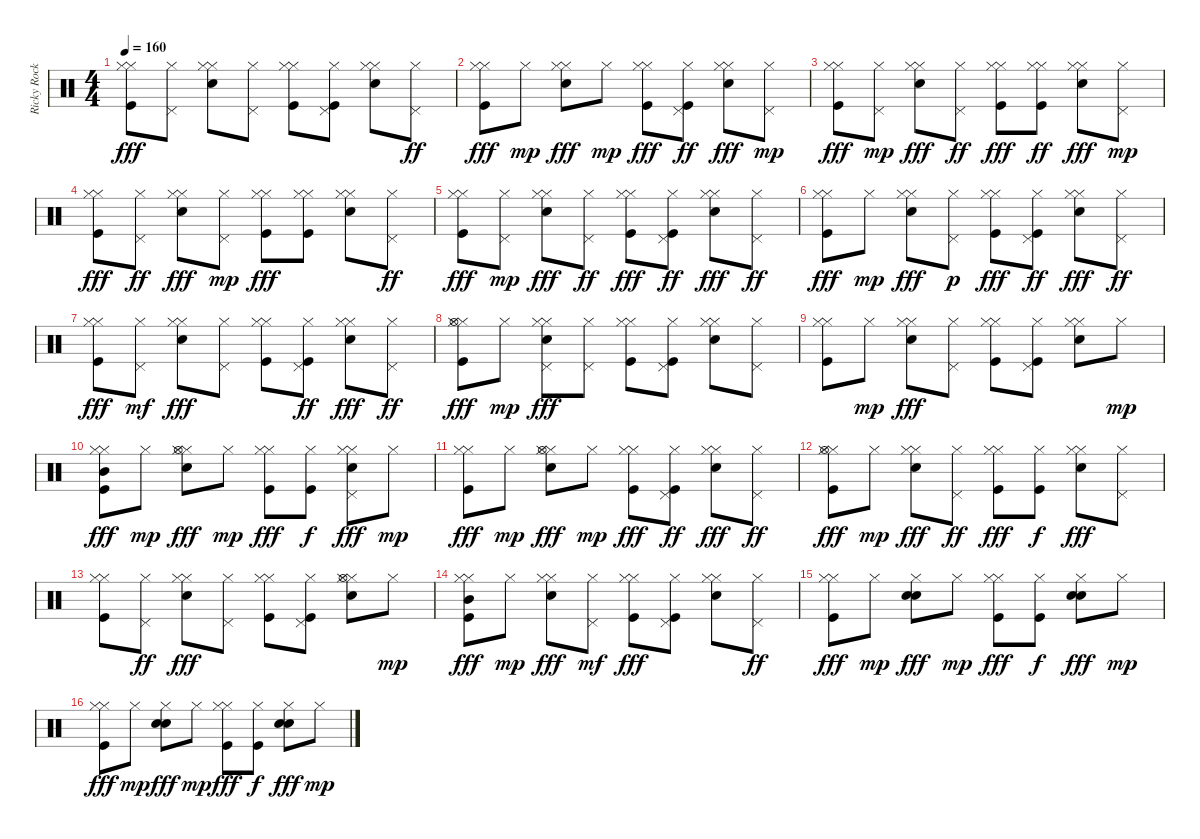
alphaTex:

\track ("Ricky Rockett" "Ricky Rock") {instrument percussion}
\staff {score}
\articulation defaults
\ts (4 4)
\tempo 160
\clef neutral
\ks c
("Hi-Hat (closed)" "Kick (hit)" "Hi-Hat (closed)").8{dy fff} ("Hi-Hat (closed)" "Pedal Hi-Hat (hit)").8 ("Snare (hit) 2" "Hi-Hat (closed)" "Hi-Hat (closed)").8 ("Hi-Hat (closed)" "Pedal Hi-Hat (hit)").8 ("Hi-Hat (closed)" "Kick (hit)" "Hi-Hat (closed)").8 ("Hi-Hat (closed)" "Kick (hit)" "Pedal Hi-Hat (hit)").8 ("Snare (hit) 2" "Hi-Hat (closed)" "Hi-Hat (closed)").8 ("Hi-Hat (closed)" "Pedal Hi-Hat (hit)").8{dy ff} |
("Hi-Hat (closed)" "Kick (hit)" "Hi-Hat (closed)").8{dy fff} "Hi-Hat (closed)".8{dy mp} ("Snare (hit) 2" "Hi-Hat (closed)" "Hi-Hat (closed)").8{dy fff} "Hi-Hat (closed)".8{dy mp} ("Hi-Hat (closed)" "Kick (hit)" "Hi-Hat (closed)").8{dy fff} ("Hi-Hat (closed)" "Kick (hit)" "Pedal Hi-Hat (hit)").8{dy ff} ("Snare (hit) 2" "Hi-Hat (closed)" "Hi-Hat (closed)").8{dy fff} ("Hi-Hat (closed)" "Pedal Hi-Hat (hit)").8{dy mp} |
("Hi-Hat (closed)" "Kick (hit)" "Hi-Hat (closed)").8{dy fff} ("Hi-Hat (closed)" "Pedal Hi-Hat (hit)").8{dy mp} ("Snare (hit) 2" "Hi-Hat (closed)" "Hi-Hat (closed)").8{dy fff} ("Hi-Hat (closed)" "Pedal Hi-Hat (hit)").8{dy ff} ("Hi-Hat (closed)" "Kick (hit)" "Hi-Hat (closed)").8{dy fff} ("Hi-Hat (closed)" "Kick (hit)" "Hi-Hat (closed)").8{dy ff} ("Snare (hit) 2" "Hi-Hat (closed)" "Hi-Hat (closed)").8{dy fff} ("Hi-Hat (closed)" "Pedal Hi-Hat (hit)").8{dy mp} |
("Hi-Hat (closed)" "Kick (hit)" "Hi-Hat (closed)").8{dy fff} ("Hi-Hat (closed)" "Pedal Hi-Hat (hit)").8{dy ff} ("Snare (hit) 2" "Hi-Hat (closed)" "Hi-Hat (closed)").8{dy fff} ("Hi-Hat (closed)" "Pedal Hi-Hat (hit)").8{dy mp} ("Hi-Hat (closed)" "Kick (hit)" "Hi-Hat (closed)").8{dy fff} ("Hi-Hat (closed)" "Kick (hit)" "Hi-Hat (closed)").8 ("Snare (hit) 2" "Hi-Hat (closed)" "Hi-Hat (closed)").8 ("Hi-Hat (closed)" "Pedal Hi-Hat (hit)").8{dy ff} |
("Hi-Hat (closed)" "Kick (hit)" "Hi-Hat (closed)").8{dy fff} ("Hi-Hat (closed)" "Pedal Hi-Hat (hit)").8{dy mp} ("Snare (hit) 2" "Hi-Hat (closed)" "Hi-Hat (closed)").8{dy fff} ("Hi-Hat (closed)" "Pedal Hi-Hat (hit)").8{dy ff} ("Hi-Hat (closed)" "Kick (hit)" "Hi-Hat (closed)").8{dy fff} ("Hi-Hat (closed)" "Kick (hit)" "Pedal Hi-Hat (hit)").8{dy ff} ("Snare (hit) 2" "Hi-Hat (closed)" "Hi-Hat (closed)").8{dy fff} ("Hi-Hat (closed)" "Pedal Hi-Hat (hit)").8{dy ff} |
("Hi-Hat (closed)" "Kick (hit)" "Hi-Hat (closed)").8{dy fff} "Hi-Hat (closed)".8{dy mp} ("Snare (hit) 2" "Hi-Hat (closed)" "Hi-Hat (closed)").8{dy fff} ("Hi-Hat (closed)" "Pedal Hi-Hat (hit)").8{dy p} ("Hi-Hat (closed)" "Kick (hit)" "Hi-Hat (closed)").8{dy fff} ("Hi-Hat (closed)" "Kick (hit)" "Pedal Hi-Hat (hit)").8{dy ff} ("Snare (hit) 2" "Hi-Hat (closed)" "Hi-Hat (closed)").8{dy fff} ("Hi-Hat (closed)" "Pedal Hi-Hat (hit)").8{dy ff} |
("Hi-Hat (closed)" "Kick (hit)" "Hi-Hat (closed)").8{dy fff} ("Hi-Hat (closed)" "Pedal Hi-Hat (hit)").8{dy mf} ("Snare (hit) 2" "Hi-Hat (closed)" "Hi-Hat (closed)").8{dy fff} ("Hi-Hat (closed)" "Pedal Hi-Hat (hit)").8 ("Hi-Hat (closed)" "Kick (hit)" "Hi-Hat (closed)").8 ("Hi-Hat (closed)" "Kick (hit)" "Pedal Hi-Hat (hit)").8{dy ff} ("Snare (hit) 2" "Hi-Hat (closed)" "Hi-Hat (closed)").8{dy fff} ("Hi-Hat (closed)" "Pedal Hi-Hat (hit)").8{dy ff} |
("Hi-Hat (closed)" "Kick (hit)" "Hi-Hat (closed)" "Hi-Hat (open)").8{dy fff} "Hi-Hat (closed)".8{dy mp} ("Snare (hit) 2" "Hi-Hat (closed)" "Hi-Hat (closed)" "Pedal Hi-Hat (hit)").8{dy fff} ("Hi-Hat (closed)" "Pedal Hi-Hat (hit)").8 ("Hi-Hat (closed)" "Kick (hit)" "Hi-Hat (closed)").8 ("Hi-Hat (closed)" "Kick (hit)" "Pedal Hi-Hat (hit)").8 ("Snare (hit) 2" "Hi-Hat (closed)" "Hi-Hat (closed)").8 ("Hi-Hat (closed)" "Pedal Hi-Hat (hit)").8 |
("Hi-Hat (closed)" "Kick (hit)" "Hi-Hat (closed)").8 "Hi-Hat (closed)".8{dy mp} ("Snare (hit) 2" "Hi-Hat (closed)" "Hi-Hat (closed)").8{dy fff} ("Hi-Hat (closed)" "Pedal Hi-Hat (hit)").8 ("Hi-Hat (closed)" "Kick (hit)" "Hi-Hat (closed)").8 ("Hi-Hat (closed)" "Kick (hit)" "Pedal Hi-Hat (hit)").8 ("Snare (hit) 2" "Hi-Hat (closed)" "Hi-Hat (closed)").8 "Hi-Hat (closed)".8{dy mp} |
("Hi-Hat (closed)" "Kick (hit)" "Mid Tom (hit)" "Hi-Hat (closed)").8{dy fff} "Hi-Hat (closed)".8{dy mp} ("Snare (hit) 2" "Hi-Hat (closed)" "Hi-Hat (closed)" "Hi-Hat (open)").8{dy fff} "Hi-Hat (closed)".8{dy mp} ("Hi-Hat (closed)" "Kick (hit)" "Hi-Hat (closed)").8{dy fff} ("Hi-Hat (closed)" "Kick (hit)").8{dy f} ("Snare (hit) 2" "Hi-Hat (closed)" "Pedal Hi-Hat (hit)" "Hi-Hat (closed)").8{dy fff} "Hi-Hat (closed)".8{dy mp} |
("Hi-Hat (closed)" "Kick (hit)" "Hi-Hat (closed)").8{dy fff} "Hi-Hat (closed)".8{dy mp} ("Snare (hit) 2" "Hi-Hat (closed)" "Hi-Hat (closed)" "Hi-Hat (open)").8{dy fff} "Hi-Hat (closed)".8{dy mp} ("Hi-Hat (closed)" "Kick (hit)" "Hi-Hat (closed)").8{dy fff} ("Hi-Hat (closed)" "Kick (hit)" "Pedal Hi-Hat (hit)").8{dy ff} ("Snare (hit) 2" "Hi-Hat (closed)" "Hi-Hat (closed)").8{dy fff} ("Hi-Hat (closed)" "Pedal Hi-Hat (hit)").8{dy ff} |
("Hi-Hat (closed)" "Kick (hit)" "Hi-Hat (open)" "Hi-Hat (closed)").8{dy fff} "Hi-Hat (closed)".8{dy mp} ("Snare (hit) 2" "Hi-Hat (closed)" "Hi-Hat (closed)").8{dy fff} ("Hi-Hat (closed)" "Pedal Hi-Hat (hit)").8{dy ff} ("Hi-Hat (closed)" "Kick (hit)" "Hi-Hat (closed)").8{dy fff} ("Hi-Hat (closed)" "Kick (hit)").8{dy f} ("Snare (hit) 2" "Hi-Hat (closed)" "Hi-Hat (closed)").8{dy fff} ("Hi-Hat (closed)" "Pedal Hi-Hat (hit)").8 |
("Hi-Hat (closed)" "Kick (hit)" "Hi-Hat (closed)").8 ("Hi-Hat (closed)" "Pedal Hi-Hat (hit)").8{dy ff} ("Snare (hit) 2" "Hi-Hat (closed)" "Hi-Hat (closed)").8{dy fff} ("Hi-Hat (closed)" "Pedal Hi-Hat (hit)").8 ("Hi-Hat (closed)" "Kick (hit)" "Hi-Hat (closed)").8 ("Hi-Hat (closed)" "Kick (hit)" "Pedal Hi-Hat (hit)").8 ("Snare (hit) 2" "Hi-Hat (closed)" "Hi-Hat (closed)" "Hi-Hat (open)").8 "Hi-Hat (closed)".8{dy mp} |
("Hi-Hat (closed)" "Kick (hit)" "Mid Tom (hit)" "Hi-Hat (closed)").8{dy fff} "Hi-Hat (closed)".8{dy mp} ("Snare (hit) 2" "Hi-Hat (closed)" "Hi-Hat (closed)").8{dy fff} ("Hi-Hat (closed)" "Pedal Hi-Hat (hit)").8{dy mf} ("Hi-Hat (closed)" "Kick (hit)" "Hi-Hat (closed)").8{dy fff} ("Hi-Hat (closed)" "Kick (hit)" "Pedal Hi-Hat (hit)").8 ("Snare (hit) 2" "Hi-Hat (closed)" "Hi-Hat (closed)").8 ("Hi-Hat (closed)" "Pedal Hi-Hat (hit)").8{dy ff} |
("Hi-Hat (closed)" "Kick (hit)" "Hi-Hat (closed)").8{dy fff} "Hi-Hat (closed)".8{dy mp} ("Snare (hit) 2" "Hi-Hat (closed)" "Electric Snare (hit)").8{dy fff} "Hi-Hat (closed)".8{dy mp} ("Hi-Hat (closed)" "Kick (hit)" "Hi-Hat (closed)").8{dy fff} ("Hi-Hat (closed)" "Kick (hit)").8{dy f} ("Snare (hit) 2" "Hi-Hat (closed)" "Electric Snare (hit)").8{dy fff} "Hi-Hat (closed)".8{dy mp} |
("Hi-Hat (closed)" "Kick (hit)" "Hi-Hat (closed)").8{dy fff} "Hi-Hat (closed)".8{dy mp} ("Snare (hit) 2" "Hi-Hat (closed)" "Electric Snare (hit)").8{dy fff} "Hi-Hat (closed)".8{dy mp} ("Hi-Hat (closed)" "Kick (hit)" "Hi-Hat (closed)").8{dy fff} ("Hi-Hat (closed)" "Kick (hit)").8{dy f} ("Snare (hit) 2" "Hi-Hat (closed)" "Electric Snare (hit)").8{dy fff} "Hi-Hat (closed)".8{dy mp}
